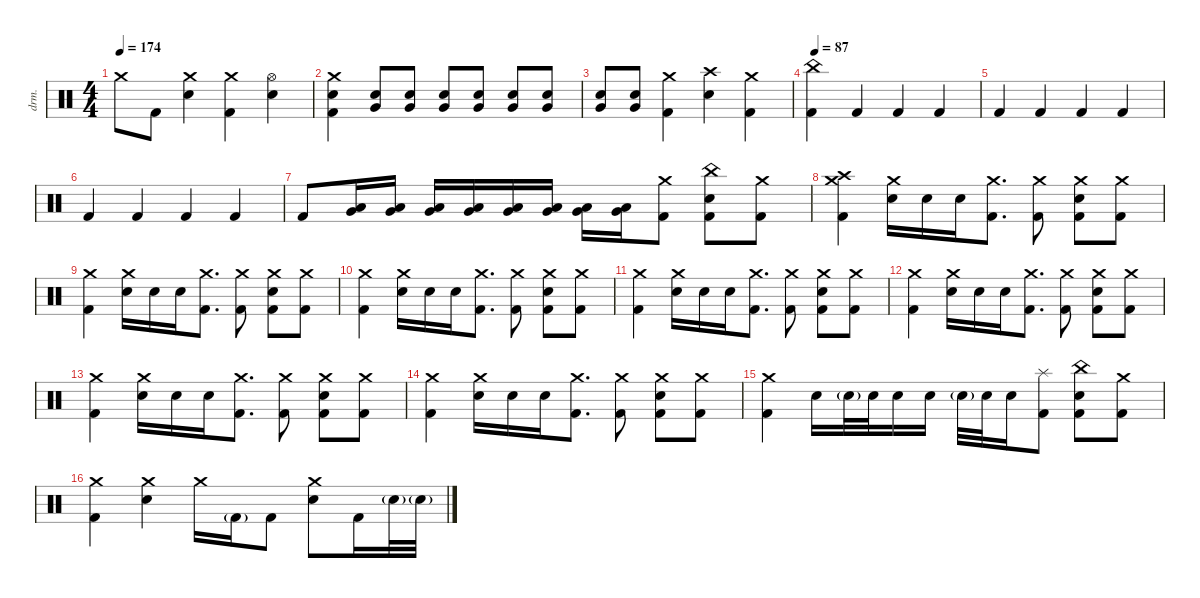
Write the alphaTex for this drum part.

\defaultSystemsLayout 4
\hideDynamics
\bracketExtendMode nobrackets
\track ("Ударные" "drm.") {instrument percussion}
\staff {score}
\articulation defaults
\ts (4 4)
\tempo 174
\clef neutral
\ks c "Crash medium (hit)".8{dy f} "Kick (hit) 2".8
("Crash medium (hit)" "Snare (hit) 2").4 ("Crash medium (hit)" "Kick (hit) 2").4 ("Hi-Hat (open)" "Snare (hit) 2").4 |
("Crash medium (hit)" "Snare (hit) 2" "Kick (hit) 2").4 ("Very Low Tom (hit)" "Snare (hit) 2").8 ("Very Low Tom (hit)" "Snare (hit) 2").8 ("Very Low Tom (hit)" "Snare (hit) 2").8 ("Very Low Tom (hit)" "Snare (hit) 2").8 ("Very Low Tom (hit)" "Snare (hit) 2").8 ("Very Low Tom (hit)" "Snare (hit) 2").8 |
("Very Low Tom (hit)" "Snare (hit) 2").8 ("Very Low Tom (hit)" "Snare (hit) 2").8 ("Crash medium (hit)" "Kick (hit) 2").4 ("Crash high (hit)" "Snare (hit) 2").4 ("Crash medium (hit)" "Kick (hit) 2").4 |
\tempo 87
("Kick (hit) 2" "China (hit)").4 "Kick (hit) 2".4 "Kick (hit) 2".4 "Kick (hit) 2".4 |
"Kick (hit) 2".4 "Kick (hit) 2".4 "Kick (hit) 2".4 "Kick (hit) 2".4 |
"Kick (hit) 2".4 "Kick (hit) 2".4 "Kick (hit) 2".4 "Kick (hit) 2".4 |
"Kick (hit) 2".8 ("Low Floor Tom (hit)" "Very Low Tom (hit)").16 ("Low Floor Tom (hit)" "Very Low Tom (hit)").16 ("Low Floor Tom (hit)" "Very Low Tom (hit)").16 ("Low Floor Tom (hit)" "Very Low Tom (hit)").16 ("Low Floor Tom (hit)" "Very Low Tom (hit)").16 ("Low Floor Tom (hit)" "Very Low Tom (hit)").16 ("Low Floor Tom (hit)" "Very Low Tom (hit)").16 ("Low Floor Tom (hit)" "Very Low Tom (hit)").16 ("Crash medium (hit)" "Kick (hit) 2").8 ("China (hit)" "Snare (hit) 2" "Kick (hit) 2").8 ("Crash medium (hit)" "Kick (hit) 2").8 |
("Crash medium (hit)" "Crash high (hit)" "Kick (hit) 2").4 ("Crash medium (hit)" "Snare (hit) 2").16 "Snare (hit) 2".16 "Snare (hit) 2".16 ("Crash medium (hit)" "Kick (hit) 2").8{d} ("Crash medium (hit)" "Kick (hit) 2").8 ("Crash medium (hit)" "Snare (hit) 2" "Kick (hit) 2").8 ("Crash medium (hit)" "Kick (hit) 2").8 |
("Crash medium (hit)" "Kick (hit) 2").4 ("Crash medium (hit)" "Snare (hit) 2").16 "Snare (hit) 2".16 "Snare (hit) 2".16 ("Crash medium (hit)" "Kick (hit) 2").8{d} ("Crash medium (hit)" "Kick (hit) 2").8 ("Crash medium (hit)" "Snare (hit) 2" "Kick (hit) 2").8 ("Crash medium (hit)" "Kick (hit) 2").8 |
("Crash medium (hit)" "Kick (hit) 2").4 ("Crash medium (hit)" "Snare (hit) 2").16 "Snare (hit) 2".16 "Snare (hit) 2".16 ("Crash medium (hit)" "Kick (hit) 2").8{d} ("Crash medium (hit)" "Kick (hit) 2").8 ("Crash medium (hit)" "Snare (hit) 2" "Kick (hit) 2").8 ("Crash medium (hit)" "Kick (hit) 2").8 |
("Crash medium (hit)" "Kick (hit) 2").4 ("Crash medium (hit)" "Snare (hit) 2").16 "Snare (hit) 2".16 "Snare (hit) 2".16 ("Crash medium (hit)" "Kick (hit) 2").8{d} ("Crash medium (hit)" "Kick (hit) 2").8 ("Crash medium (hit)" "Snare (hit) 2" "Kick (hit) 2").8 ("Crash medium (hit)" "Kick (hit) 2").8 |
("Crash medium (hit)" "Kick (hit) 2").4 ("Crash medium (hit)" "Snare (hit) 2").16 "Snare (hit) 2".16 "Snare (hit) 2".16 ("Crash medium (hit)" "Kick (hit) 2").8{d} ("Crash medium (hit)" "Kick (hit) 2").8 ("Crash medium (hit)" "Snare (hit) 2" "Kick (hit) 2").8 ("Crash medium (hit)" "Kick (hit) 2").8 |
("Crash medium (hit)" "Kick (hit) 2").4 ("Crash medium (hit)" "Snare (hit) 2").16 "Snare (hit) 2".16 "Snare (hit) 2".16 ("Crash medium (hit)" "Kick (hit) 2").8{d} ("Crash medium (hit)" "Kick (hit) 2").8 ("Crash medium (hit)" "Snare (hit) 2" "Kick (hit) 2").8 ("Crash medium (hit)" "Kick (hit) 2").8 |
("Crash medium (hit)" "Kick (hit) 2").4 ("Crash medium (hit)" "Snare (hit) 2").16 "Snare (hit) 2".16 "Snare (hit) 2".16 ("Crash medium (hit)" "Kick (hit) 2").8{d} ("Crash medium (hit)" "Kick (hit) 2").8 ("Crash medium (hit)" "Snare (hit) 2" "Kick (hit) 2").8 ("Crash medium (hit)" "Kick (hit) 2").8 |
("Crash medium (hit)" "Kick (hit) 2").4 "Snare (hit) 2".16 "Snare (hit) 2"{g}.32{dy mf} "Snare (hit) 2".32{dy f} "Snare (hit) 2".16 "Snare (hit) 2".16 "Snare (hit) 2"{g}.32{dy mf} "Snare (hit) 2".32{dy f} "Snare (hit) 2".16 ("Splash (hit)" "Kick (hit) 2").8 ("China (hit)" "Snare (hit) 2" "Kick (hit) 2").8 ("Crash medium (hit)" "Kick (hit) 2").8 |
("Crash medium (hit)" "Kick (hit) 2").4 ("Crash medium (hit)" "Snare (hit) 2").4 "Crash medium (hit)".16 "Kick (hit) 2"{g}.16{dy mf} "Kick (hit) 2".8{dy f} ("Crash medium (hit)" "Snare (hit) 2").8 "Kick (hit) 2".16 "Snare (hit) 2"{g}.32{dy mf} "Snare (hit) 2"{g}.32
